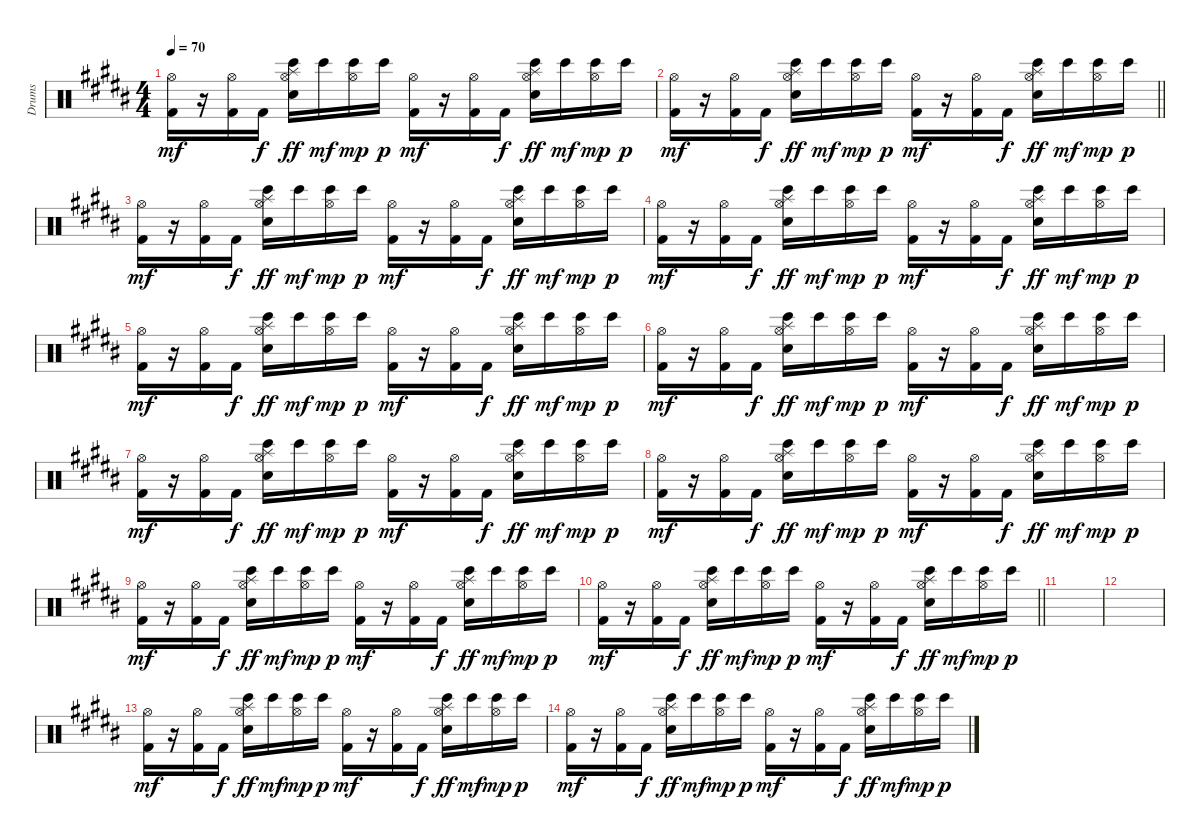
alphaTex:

\track ("Drums" "Drums") {instrument percussion}
\staff {score}
\articulation defaults
\ts (4 4)
\tempo 70
\clef neutral
\ks b
("Hi-Hat (open)" "Kick (hit) 2").16{dy mf} r.16 ("Hi-Hat (open)" "Kick (hit) 2").16 "Kick (hit) 2".16{dy f} ("Hi-Hat (open)" "Splash (hit)" "Snare (hit) 2" "Bongo High (hit)").16{dy ff} "Bongo High (hit)".16{dy mf} ("Hi-Hat (open)" "Bongo High (hit)").16{dy mp} "Bongo High (hit)".16{dy p} ("Hi-Hat (open)" "Kick (hit) 2").16{dy mf} r.16 ("Hi-Hat (open)" "Kick (hit) 2").16 "Kick (hit) 2".16{dy f} ("Hi-Hat (open)" "Splash (hit)" "Snare (hit) 2" "Bongo High (hit)").16{dy ff} "Bongo High (hit)".16{dy mf} ("Hi-Hat (open)" "Bongo High (hit)").16{dy mp} "Bongo High (hit)".16{dy p} |
\barLineRight lightlight
("Hi-Hat (open)" "Kick (hit) 2").16{dy mf} r.16 ("Hi-Hat (open)" "Kick (hit) 2").16 "Kick (hit) 2".16{dy f} ("Hi-Hat (open)" "Splash (hit)" "Snare (hit) 2" "Bongo High (hit)").16{dy ff} "Bongo High (hit)".16{dy mf} ("Hi-Hat (open)" "Bongo High (hit)").16{dy mp} "Bongo High (hit)".16{dy p} ("Hi-Hat (open)" "Kick (hit) 2").16{dy mf} r.16 ("Hi-Hat (open)" "Kick (hit) 2").16 "Kick (hit) 2".16{dy f} ("Hi-Hat (open)" "Splash (hit)" "Snare (hit) 2" "Bongo High (hit)").16{dy ff} "Bongo High (hit)".16{dy mf} ("Hi-Hat (open)" "Bongo High (hit)").16{dy mp} "Bongo High (hit)".16{dy p} |
("Hi-Hat (open)" "Kick (hit) 2").16{dy mf} r.16 ("Hi-Hat (open)" "Kick (hit) 2").16 "Kick (hit) 2".16{dy f} ("Hi-Hat (open)" "Splash (hit)" "Snare (hit) 2" "Bongo High (hit)").16{dy ff} "Bongo High (hit)".16{dy mf} ("Hi-Hat (open)" "Bongo High (hit)").16{dy mp} "Bongo High (hit)".16{dy p} ("Hi-Hat (open)" "Kick (hit) 2").16{dy mf} r.16 ("Hi-Hat (open)" "Kick (hit) 2").16 "Kick (hit) 2".16{dy f} ("Hi-Hat (open)" "Splash (hit)" "Snare (hit) 2" "Bongo High (hit)").16{dy ff} "Bongo High (hit)".16{dy mf} ("Hi-Hat (open)" "Bongo High (hit)").16{dy mp} "Bongo High (hit)".16{dy p} |
("Hi-Hat (open)" "Kick (hit) 2").16{dy mf} r.16 ("Hi-Hat (open)" "Kick (hit) 2").16 "Kick (hit) 2".16{dy f} ("Hi-Hat (open)" "Splash (hit)" "Snare (hit) 2" "Bongo High (hit)").16{dy ff} "Bongo High (hit)".16{dy mf} ("Hi-Hat (open)" "Bongo High (hit)").16{dy mp} "Bongo High (hit)".16{dy p} ("Hi-Hat (open)" "Kick (hit) 2").16{dy mf} r.16 ("Hi-Hat (open)" "Kick (hit) 2").16 "Kick (hit) 2".16{dy f} ("Hi-Hat (open)" "Splash (hit)" "Snare (hit) 2" "Bongo High (hit)").16{dy ff} "Bongo High (hit)".16{dy mf} ("Hi-Hat (open)" "Bongo High (hit)").16{dy mp} "Bongo High (hit)".16{dy p} |
("Hi-Hat (open)" "Kick (hit) 2").16{dy mf} r.16 ("Hi-Hat (open)" "Kick (hit) 2").16 "Kick (hit) 2".16{dy f} ("Hi-Hat (open)" "Splash (hit)" "Snare (hit) 2" "Bongo High (hit)").16{dy ff} "Bongo High (hit)".16{dy mf} ("Hi-Hat (open)" "Bongo High (hit)").16{dy mp} "Bongo High (hit)".16{dy p} ("Hi-Hat (open)" "Kick (hit) 2").16{dy mf} r.16 ("Hi-Hat (open)" "Kick (hit) 2").16 "Kick (hit) 2".16{dy f} ("Hi-Hat (open)" "Splash (hit)" "Snare (hit) 2" "Bongo High (hit)").16{dy ff} "Bongo High (hit)".16{dy mf} ("Hi-Hat (open)" "Bongo High (hit)").16{dy mp} "Bongo High (hit)".16{dy p} |
("Hi-Hat (open)" "Kick (hit) 2").16{dy mf} r.16 ("Hi-Hat (open)" "Kick (hit) 2").16 "Kick (hit) 2".16{dy f} ("Hi-Hat (open)" "Splash (hit)" "Snare (hit) 2" "Bongo High (hit)").16{dy ff} "Bongo High (hit)".16{dy mf} ("Hi-Hat (open)" "Bongo High (hit)").16{dy mp} "Bongo High (hit)".16{dy p} ("Hi-Hat (open)" "Kick (hit) 2").16{dy mf} r.16 ("Hi-Hat (open)" "Kick (hit) 2").16 "Kick (hit) 2".16{dy f} ("Hi-Hat (open)" "Splash (hit)" "Snare (hit) 2" "Bongo High (hit)").16{dy ff} "Bongo High (hit)".16{dy mf} ("Hi-Hat (open)" "Bongo High (hit)").16{dy mp} "Bongo High (hit)".16{dy p} |
("Hi-Hat (open)" "Kick (hit) 2").16{dy mf} r.16 ("Hi-Hat (open)" "Kick (hit) 2").16 "Kick (hit) 2".16{dy f} ("Hi-Hat (open)" "Splash (hit)" "Snare (hit) 2" "Bongo High (hit)").16{dy ff} "Bongo High (hit)".16{dy mf} ("Hi-Hat (open)" "Bongo High (hit)").16{dy mp} "Bongo High (hit)".16{dy p} ("Hi-Hat (open)" "Kick (hit) 2").16{dy mf} r.16 ("Hi-Hat (open)" "Kick (hit) 2").16 "Kick (hit) 2".16{dy f} ("Hi-Hat (open)" "Splash (hit)" "Snare (hit) 2" "Bongo High (hit)").16{dy ff} "Bongo High (hit)".16{dy mf} ("Hi-Hat (open)" "Bongo High (hit)").16{dy mp} "Bongo High (hit)".16{dy p} |
("Hi-Hat (open)" "Kick (hit) 2").16{dy mf} r.16 ("Hi-Hat (open)" "Kick (hit) 2").16 "Kick (hit) 2".16{dy f} ("Hi-Hat (open)" "Splash (hit)" "Snare (hit) 2" "Bongo High (hit)").16{dy ff} "Bongo High (hit)".16{dy mf} ("Hi-Hat (open)" "Bongo High (hit)").16{dy mp} "Bongo High (hit)".16{dy p} ("Hi-Hat (open)" "Kick (hit) 2").16{dy mf} r.16 ("Hi-Hat (open)" "Kick (hit) 2").16 "Kick (hit) 2".16{dy f} ("Hi-Hat (open)" "Splash (hit)" "Snare (hit) 2" "Bongo High (hit)").16{dy ff} "Bongo High (hit)".16{dy mf} ("Hi-Hat (open)" "Bongo High (hit)").16{dy mp} "Bongo High (hit)".16{dy p} |
("Hi-Hat (open)" "Kick (hit) 2").16{dy mf} r.16 ("Hi-Hat (open)" "Kick (hit) 2").16 "Kick (hit) 2".16{dy f} ("Hi-Hat (open)" "Splash (hit)" "Snare (hit) 2" "Bongo High (hit)").16{dy ff} "Bongo High (hit)".16{dy mf} ("Hi-Hat (open)" "Bongo High (hit)").16{dy mp} "Bongo High (hit)".16{dy p} ("Hi-Hat (open)" "Kick (hit) 2").16{dy mf} r.16 ("Hi-Hat (open)" "Kick (hit) 2").16 "Kick (hit) 2".16{dy f} ("Hi-Hat (open)" "Splash (hit)" "Snare (hit) 2" "Bongo High (hit)").16{dy ff} "Bongo High (hit)".16{dy mf} ("Hi-Hat (open)" "Bongo High (hit)").16{dy mp} "Bongo High (hit)".16{dy p} |
\barLineRight lightlight
("Hi-Hat (open)" "Kick (hit) 2").16{dy mf} r.16 ("Hi-Hat (open)" "Kick (hit) 2").16 "Kick (hit) 2".16{dy f} ("Hi-Hat (open)" "Splash (hit)" "Snare (hit) 2" "Bongo High (hit)").16{dy ff} "Bongo High (hit)".16{dy mf} ("Hi-Hat (open)" "Bongo High (hit)").16{dy mp} "Bongo High (hit)".16{dy p} ("Hi-Hat (open)" "Kick (hit) 2").16{dy mf} r.16 ("Hi-Hat (open)" "Kick (hit) 2").16 "Kick (hit) 2".16{dy f} ("Hi-Hat (open)" "Splash (hit)" "Snare (hit) 2" "Bongo High (hit)").16{dy ff} "Bongo High (hit)".16{dy mf} ("Hi-Hat (open)" "Bongo High (hit)").16{dy mp} "Bongo High (hit)".16{dy p} |
|
|
("Hi-Hat (open)" "Kick (hit) 2").16{dy mf} r.16 ("Hi-Hat (open)" "Kick (hit) 2").16 "Kick (hit) 2".16{dy f} ("Hi-Hat (open)" "Splash (hit)" "Snare (hit) 2" "Bongo High (hit)").16{dy ff} "Bongo High (hit)".16{dy mf} ("Hi-Hat (open)" "Bongo High (hit)").16{dy mp} "Bongo High (hit)".16{dy p} ("Hi-Hat (open)" "Kick (hit) 2").16{dy mf} r.16 ("Hi-Hat (open)" "Kick (hit) 2").16 "Kick (hit) 2".16{dy f} ("Hi-Hat (open)" "Splash (hit)" "Snare (hit) 2" "Bongo High (hit)").16{dy ff} "Bongo High (hit)".16{dy mf} ("Hi-Hat (open)" "Bongo High (hit)").16{dy mp} "Bongo High (hit)".16{dy p} |
("Hi-Hat (open)" "Kick (hit) 2").16{dy mf} r.16 ("Hi-Hat (open)" "Kick (hit) 2").16 "Kick (hit) 2".16{dy f} ("Hi-Hat (open)" "Splash (hit)" "Snare (hit) 2" "Bongo High (hit)").16{dy ff} "Bongo High (hit)".16{dy mf} ("Hi-Hat (open)" "Bongo High (hit)").16{dy mp} "Bongo High (hit)".16{dy p} ("Hi-Hat (open)" "Kick (hit) 2").16{dy mf} r.16 ("Hi-Hat (open)" "Kick (hit) 2").16 "Kick (hit) 2".16{dy f} ("Hi-Hat (open)" "Splash (hit)" "Snare (hit) 2" "Bongo High (hit)").16{dy ff} "Bongo High (hit)".16{dy mf} ("Hi-Hat (open)" "Bongo High (hit)").16{dy mp} "Bongo High (hit)".16{dy p}
